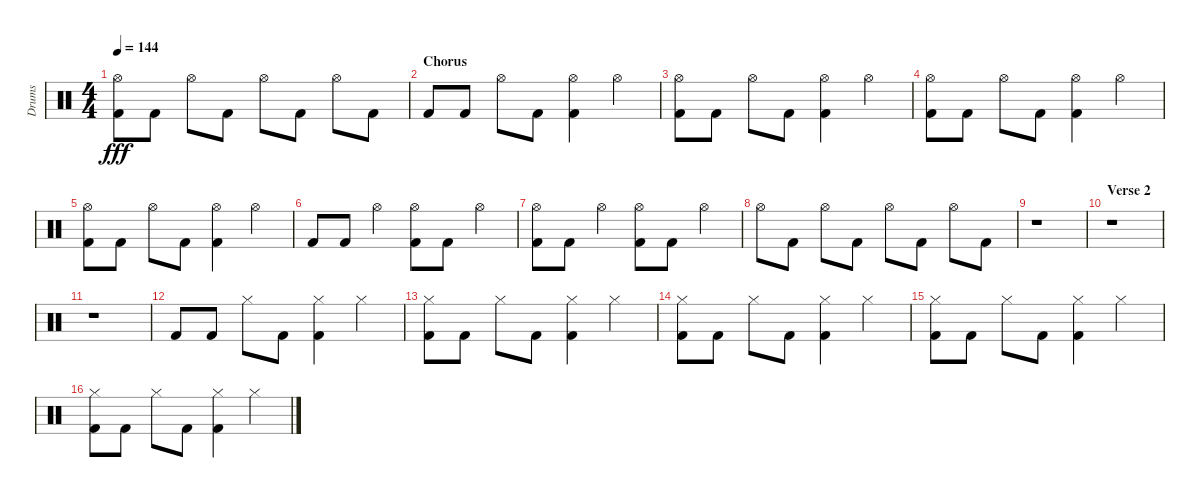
\track ("Drums" "Drums") {instrument percussion}
\staff {score}
\articulation defaults
\ts (4 4)
\tempo 144
\clef neutral
\ks c
("Hi-Hat (open)" "Kick (hit) 2").8{dy fff} "Kick (hit) 2".8 "Hi-Hat (open)".8 "Kick (hit) 2".8 "Hi-Hat (open)".8 "Kick (hit) 2".8 "Hi-Hat (open)".8 "Kick (hit) 2".8 |
\section ("" "Chorus")
"Kick (hit) 2".8 "Kick (hit) 2".8 "Hi-Hat (open)".8 "Kick (hit) 2".8 ("Hi-Hat (open)" "Kick (hit) 2").4 "Hi-Hat (open)".4 |
("Hi-Hat (open)" "Kick (hit) 2").8 "Kick (hit) 2".8 "Hi-Hat (open)".8 "Kick (hit) 2".8 ("Hi-Hat (open)" "Kick (hit) 2").4 "Hi-Hat (open)".4 |
("Hi-Hat (open)" "Kick (hit) 2").8 "Kick (hit) 2".8 "Hi-Hat (open)".8 "Kick (hit) 2".8 ("Hi-Hat (open)" "Kick (hit) 2").4 "Hi-Hat (open)".4 |
("Hi-Hat (open)" "Kick (hit) 2").8 "Kick (hit) 2".8 "Hi-Hat (open)".8 "Kick (hit) 2".8 ("Hi-Hat (open)" "Kick (hit) 2").4 "Hi-Hat (open)".4 |
"Kick (hit) 2".8 "Kick (hit) 2".8 "Hi-Hat (open)".4 ("Hi-Hat (open)" "Kick (hit) 2").8 "Kick (hit) 2".8 "Hi-Hat (open)".4 |
("Hi-Hat (open)" "Kick (hit) 2").8 "Kick (hit) 2".8 "Hi-Hat (open)".4 ("Hi-Hat (open)" "Kick (hit) 2").8 "Kick (hit) 2".8 "Hi-Hat (open)".4 |
"Hi-Hat (open)".8 "Kick (hit) 2".8 "Hi-Hat (open)".8 "Kick (hit) 2".8 "Hi-Hat (open)".8 "Kick (hit) 2".8 "Hi-Hat (open)".8 "Kick (hit) 2".8 |
r.1 |
\section ("" "Verse 2")
r.1 |
r.1 |
"Kick (hit) 2".8 "Kick (hit) 2".8 "Hi-Hat (closed)".8 "Kick (hit) 2".8 ("Hi-Hat (closed)" "Kick (hit) 2").4 "Hi-Hat (closed)".4 |
("Hi-Hat (closed)" "Kick (hit) 2").8 "Kick (hit) 2".8 "Hi-Hat (closed)".8 "Kick (hit) 2".8 ("Hi-Hat (closed)" "Kick (hit) 2").4 "Hi-Hat (closed)".4 |
("Hi-Hat (closed)" "Kick (hit) 2").8 "Kick (hit) 2".8 "Hi-Hat (closed)".8 "Kick (hit) 2".8 ("Hi-Hat (closed)" "Kick (hit) 2").4 "Hi-Hat (closed)".4 |
("Hi-Hat (closed)" "Kick (hit) 2").8 "Kick (hit) 2".8 "Hi-Hat (closed)".8 "Kick (hit) 2".8 ("Hi-Hat (closed)" "Kick (hit) 2").4 "Hi-Hat (closed)".4 |
("Hi-Hat (closed)" "Kick (hit) 2").8 "Kick (hit) 2".8 "Hi-Hat (closed)".8 "Kick (hit) 2".8 ("Hi-Hat (closed)" "Kick (hit) 2").4 "Hi-Hat (closed)".4
